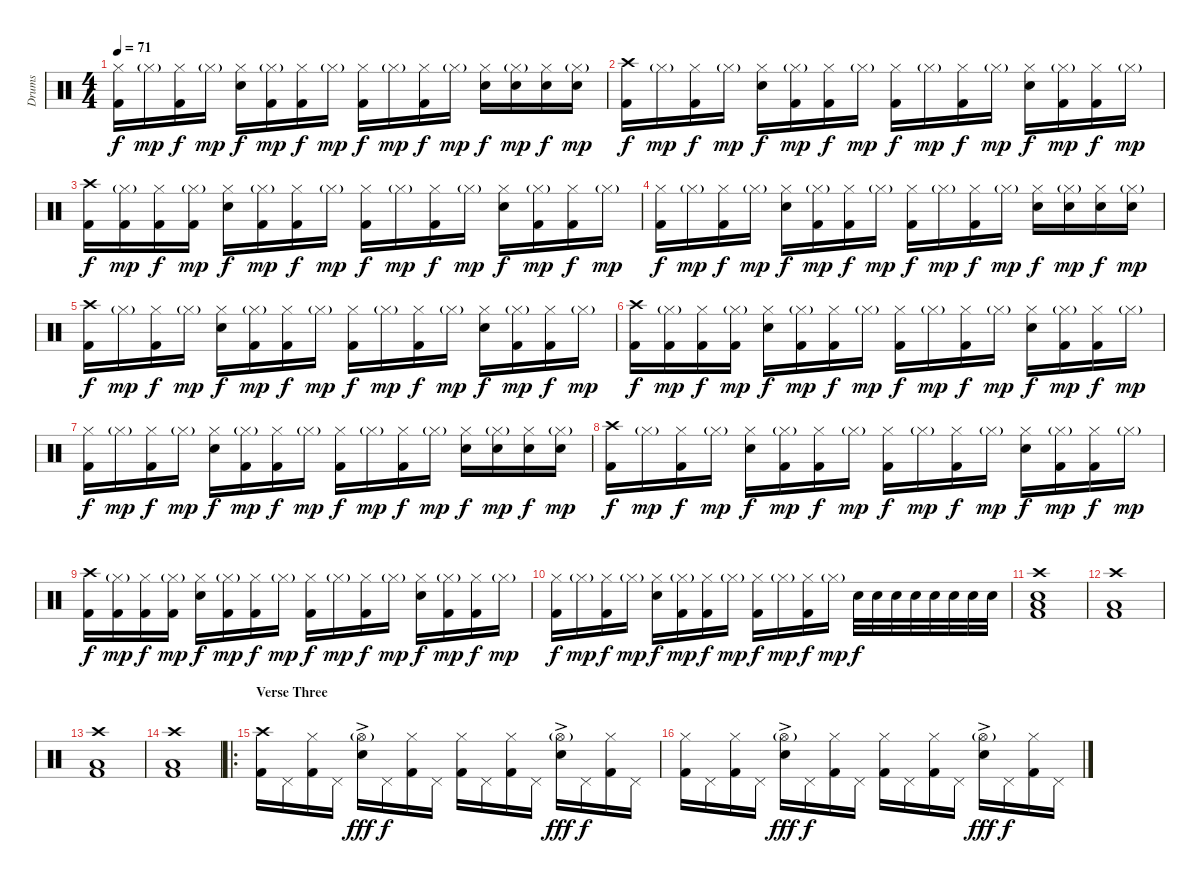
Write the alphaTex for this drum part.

\track ("Drums" "Drums") {instrument percussion}
\staff {score}
\articulation defaults
\ts (4 4)
\tempo 71
\clef neutral
\ks c
("Hi-Hat (closed)" "Kick (hit) 2").16{dy f} "Hi-Hat (closed)"{g}.16{dy mp} ("Hi-Hat (closed)" "Kick (hit) 2").16{dy f} "Hi-Hat (closed)"{g}.16{dy mp} ("Hi-Hat (closed)" "Electric Snare (hit)").16{dy f} ("Hi-Hat (closed)"{g} "Kick (hit) 2").16{dy mp} ("Hi-Hat (closed)" "Kick (hit) 2").16{dy f} "Hi-Hat (closed)"{g}.16{dy mp} ("Hi-Hat (closed)" "Kick (hit) 2").16{dy f} "Hi-Hat (closed)"{g}.16{dy mp} ("Hi-Hat (closed)" "Kick (hit) 2").16{dy f} "Hi-Hat (closed)"{g}.16{dy mp} ("Hi-Hat (closed)" "Electric Snare (hit)").16{dy f} ("Hi-Hat (closed)"{g} "Electric Snare (hit)").16{dy mp} ("Hi-Hat (closed)" "Electric Snare (hit)").16{dy f} ("Hi-Hat (closed)"{g} "Electric Snare (hit)").16{dy mp} |
("Crash high (hit)" "Kick (hit) 2").16{dy f} "Hi-Hat (closed)"{g}.16{dy mp} ("Hi-Hat (closed)" "Kick (hit) 2").16{dy f} "Hi-Hat (closed)"{g}.16{dy mp} ("Hi-Hat (closed)" "Electric Snare (hit)").16{dy f} ("Hi-Hat (closed)"{g} "Kick (hit) 2").16{dy mp} ("Hi-Hat (closed)" "Kick (hit) 2").16{dy f} "Hi-Hat (closed)"{g}.16{dy mp} ("Hi-Hat (closed)" "Kick (hit) 2").16{dy f} "Hi-Hat (closed)"{g}.16{dy mp} ("Hi-Hat (closed)" "Kick (hit) 2").16{dy f} "Hi-Hat (closed)"{g}.16{dy mp} ("Hi-Hat (closed)" "Electric Snare (hit)").16{dy f} ("Hi-Hat (closed)"{g} "Kick (hit) 2").16{dy mp} ("Hi-Hat (closed)" "Kick (hit) 2").16{dy f} "Hi-Hat (closed)"{g}.16{dy mp} |
("Crash high (hit)" "Kick (hit) 2").16{dy f} ("Hi-Hat (closed)"{g} "Kick (hit) 2").16{dy mp} ("Hi-Hat (closed)" "Kick (hit) 2").16{dy f} ("Hi-Hat (closed)"{g} "Kick (hit) 2").16{dy mp} ("Hi-Hat (closed)" "Electric Snare (hit)").16{dy f} ("Hi-Hat (closed)"{g} "Kick (hit) 2").16{dy mp} ("Hi-Hat (closed)" "Kick (hit) 2").16{dy f} "Hi-Hat (closed)"{g}.16{dy mp} ("Hi-Hat (closed)" "Kick (hit) 2").16{dy f} "Hi-Hat (closed)"{g}.16{dy mp} ("Hi-Hat (closed)" "Kick (hit) 2").16{dy f} "Hi-Hat (closed)"{g}.16{dy mp} ("Hi-Hat (closed)" "Electric Snare (hit)").16{dy f} ("Hi-Hat (closed)"{g} "Kick (hit) 2").16{dy mp} ("Hi-Hat (closed)" "Kick (hit) 2").16{dy f} "Hi-Hat (closed)"{g}.16{dy mp} |
("Hi-Hat (closed)" "Kick (hit) 2").16{dy f} "Hi-Hat (closed)"{g}.16{dy mp} ("Hi-Hat (closed)" "Kick (hit) 2").16{dy f} "Hi-Hat (closed)"{g}.16{dy mp} ("Hi-Hat (closed)" "Electric Snare (hit)").16{dy f} ("Hi-Hat (closed)"{g} "Kick (hit) 2").16{dy mp} ("Hi-Hat (closed)" "Kick (hit) 2").16{dy f} "Hi-Hat (closed)"{g}.16{dy mp} ("Hi-Hat (closed)" "Kick (hit) 2").16{dy f} "Hi-Hat (closed)"{g}.16{dy mp} ("Hi-Hat (closed)" "Kick (hit) 2").16{dy f} "Hi-Hat (closed)"{g}.16{dy mp} ("Hi-Hat (closed)" "Electric Snare (hit)").16{dy f} ("Hi-Hat (closed)"{g} "Electric Snare (hit)").16{dy mp} ("Hi-Hat (closed)" "Electric Snare (hit)").16{dy f} ("Hi-Hat (closed)"{g} "Electric Snare (hit)").16{dy mp} |
("Crash high (hit)" "Kick (hit) 2").16{dy f} "Hi-Hat (closed)"{g}.16{dy mp} ("Hi-Hat (closed)" "Kick (hit) 2").16{dy f} "Hi-Hat (closed)"{g}.16{dy mp} ("Hi-Hat (closed)" "Electric Snare (hit)").16{dy f} ("Hi-Hat (closed)"{g} "Kick (hit) 2").16{dy mp} ("Hi-Hat (closed)" "Kick (hit) 2").16{dy f} "Hi-Hat (closed)"{g}.16{dy mp} ("Hi-Hat (closed)" "Kick (hit) 2").16{dy f} "Hi-Hat (closed)"{g}.16{dy mp} ("Hi-Hat (closed)" "Kick (hit) 2").16{dy f} "Hi-Hat (closed)"{g}.16{dy mp} ("Hi-Hat (closed)" "Electric Snare (hit)").16{dy f} ("Hi-Hat (closed)"{g} "Kick (hit) 2").16{dy mp} ("Hi-Hat (closed)" "Kick (hit) 2").16{dy f} "Hi-Hat (closed)"{g}.16{dy mp} |
("Crash high (hit)" "Kick (hit) 2").16{dy f} ("Hi-Hat (closed)"{g} "Kick (hit) 2").16{dy mp} ("Hi-Hat (closed)" "Kick (hit) 2").16{dy f} ("Hi-Hat (closed)"{g} "Kick (hit) 2").16{dy mp} ("Hi-Hat (closed)" "Electric Snare (hit)").16{dy f} ("Hi-Hat (closed)"{g} "Kick (hit) 2").16{dy mp} ("Hi-Hat (closed)" "Kick (hit) 2").16{dy f} "Hi-Hat (closed)"{g}.16{dy mp} ("Hi-Hat (closed)" "Kick (hit) 2").16{dy f} "Hi-Hat (closed)"{g}.16{dy mp} ("Hi-Hat (closed)" "Kick (hit) 2").16{dy f} "Hi-Hat (closed)"{g}.16{dy mp} ("Hi-Hat (closed)" "Electric Snare (hit)").16{dy f} ("Hi-Hat (closed)"{g} "Kick (hit) 2").16{dy mp} ("Hi-Hat (closed)" "Kick (hit) 2").16{dy f} "Hi-Hat (closed)"{g}.16{dy mp} |
("Hi-Hat (closed)" "Kick (hit) 2").16{dy f} "Hi-Hat (closed)"{g}.16{dy mp} ("Hi-Hat (closed)" "Kick (hit) 2").16{dy f} "Hi-Hat (closed)"{g}.16{dy mp} ("Hi-Hat (closed)" "Electric Snare (hit)").16{dy f} ("Hi-Hat (closed)"{g} "Kick (hit) 2").16{dy mp} ("Hi-Hat (closed)" "Kick (hit) 2").16{dy f} "Hi-Hat (closed)"{g}.16{dy mp} ("Hi-Hat (closed)" "Kick (hit) 2").16{dy f} "Hi-Hat (closed)"{g}.16{dy mp} ("Hi-Hat (closed)" "Kick (hit) 2").16{dy f} "Hi-Hat (closed)"{g}.16{dy mp} ("Hi-Hat (closed)" "Electric Snare (hit)").16{dy f} ("Hi-Hat (closed)"{g} "Electric Snare (hit)").16{dy mp} ("Hi-Hat (closed)" "Electric Snare (hit)").16{dy f} ("Hi-Hat (closed)"{g} "Electric Snare (hit)").16{dy mp} |
("Crash high (hit)" "Kick (hit) 2").16{dy f} "Hi-Hat (closed)"{g}.16{dy mp} ("Hi-Hat (closed)" "Kick (hit) 2").16{dy f} "Hi-Hat (closed)"{g}.16{dy mp} ("Hi-Hat (closed)" "Electric Snare (hit)").16{dy f} ("Hi-Hat (closed)"{g} "Kick (hit) 2").16{dy mp} ("Hi-Hat (closed)" "Kick (hit) 2").16{dy f} "Hi-Hat (closed)"{g}.16{dy mp} ("Hi-Hat (closed)" "Kick (hit) 2").16{dy f} "Hi-Hat (closed)"{g}.16{dy mp} ("Hi-Hat (closed)" "Kick (hit) 2").16{dy f} "Hi-Hat (closed)"{g}.16{dy mp} ("Hi-Hat (closed)" "Electric Snare (hit)").16{dy f} ("Hi-Hat (closed)"{g} "Kick (hit) 2").16{dy mp} ("Hi-Hat (closed)" "Kick (hit) 2").16{dy f} "Hi-Hat (closed)"{g}.16{dy mp} |
("Crash high (hit)" "Kick (hit) 2").16{dy f} ("Hi-Hat (closed)"{g} "Kick (hit) 2").16{dy mp} ("Hi-Hat (closed)" "Kick (hit) 2").16{dy f} ("Hi-Hat (closed)"{g} "Kick (hit) 2").16{dy mp} ("Hi-Hat (closed)" "Electric Snare (hit)").16{dy f} ("Hi-Hat (closed)"{g} "Kick (hit) 2").16{dy mp} ("Hi-Hat (closed)" "Kick (hit) 2").16{dy f} "Hi-Hat (closed)"{g}.16{dy mp} ("Hi-Hat (closed)" "Kick (hit) 2").16{dy f} "Hi-Hat (closed)"{g}.16{dy mp} ("Hi-Hat (closed)" "Kick (hit) 2").16{dy f} "Hi-Hat (closed)"{g}.16{dy mp} ("Hi-Hat (closed)" "Electric Snare (hit)").16{dy f} ("Hi-Hat (closed)"{g} "Kick (hit) 2").16{dy mp} ("Hi-Hat (closed)" "Kick (hit) 2").16{dy f} "Hi-Hat (closed)"{g}.16{dy mp} |
("Hi-Hat (closed)" "Kick (hit) 2").16{dy f} "Hi-Hat (closed)"{g}.16{dy mp} ("Hi-Hat (closed)" "Kick (hit) 2").16{dy f} "Hi-Hat (closed)"{g}.16{dy mp} ("Hi-Hat (closed)" "Electric Snare (hit)").16{dy f} ("Hi-Hat (closed)"{g} "Kick (hit) 2").16{dy mp} ("Hi-Hat (closed)" "Kick (hit) 2").16{dy f} "Hi-Hat (closed)"{g}.16{dy mp} ("Hi-Hat (closed)" "Kick (hit) 2").16{dy f} "Hi-Hat (closed)"{g}.16{dy mp} ("Hi-Hat (closed)" "Kick (hit) 2").16{dy f} "Hi-Hat (closed)"{g}.16{dy mp} "Electric Snare (hit)".32{dy f} "Electric Snare (hit)".32 "Electric Snare (hit)".32 "Electric Snare (hit)".32 "Electric Snare (hit)".32 "Electric Snare (hit)".32 "Electric Snare (hit)".32 "Electric Snare (hit)".32 |
("Crash high (hit)" "Electric Snare (hit)" "Low Floor Tom (hit)" "Kick (hit) 2").1 |
("Crash high (hit)" "Low Floor Tom (hit)" "Kick (hit) 2").1 |
("Crash high (hit)" "Low Floor Tom (hit)" "Kick (hit) 2").1 |
("Crash high (hit)" "Low Floor Tom (hit)" "Kick (hit) 2").1 |
\ro
\section ("" "Verse Three")
("Crash high (hit)" "Kick (hit) 2").16{volume 12} "Pedal Hi-Hat (hit)".16 ("Hi-Hat (closed)" "Kick (hit) 2").16 "Pedal Hi-Hat (hit)".16 ("Hi-Hat (open)"{g} "Snare (hit) 2"{ac}).16{dy fff} "Pedal Hi-Hat (hit)".16{dy f} ("Hi-Hat (closed)" "Kick (hit) 2").16 "Pedal Hi-Hat (hit)".16 ("Hi-Hat (closed)" "Kick (hit) 2").16 "Pedal Hi-Hat (hit)".16 ("Hi-Hat (closed)" "Kick (hit) 2").16 "Pedal Hi-Hat (hit)".16 ("Hi-Hat (open)"{g} "Snare (hit) 2"{ac}).16{dy fff} "Pedal Hi-Hat (hit)".16{dy f} ("Hi-Hat (closed)" "Kick (hit) 2").16 "Pedal Hi-Hat (hit)".16 |
("Hi-Hat (closed)" "Kick (hit) 2").16 "Pedal Hi-Hat (hit)".16 ("Hi-Hat (closed)" "Kick (hit) 2").16 "Pedal Hi-Hat (hit)".16 ("Hi-Hat (open)"{g} "Snare (hit) 2"{ac}).16{dy fff} "Pedal Hi-Hat (hit)".16{dy f} ("Hi-Hat (closed)" "Kick (hit) 2").16 "Pedal Hi-Hat (hit)".16 ("Hi-Hat (closed)" "Kick (hit) 2").16 "Pedal Hi-Hat (hit)".16 ("Hi-Hat (closed)" "Kick (hit) 2").16 "Pedal Hi-Hat (hit)".16 ("Hi-Hat (open)"{g} "Snare (hit) 2"{ac}).16{dy fff} "Pedal Hi-Hat (hit)".16{dy f} ("Hi-Hat (closed)" "Kick (hit) 2").16 "Pedal Hi-Hat (hit)".16
